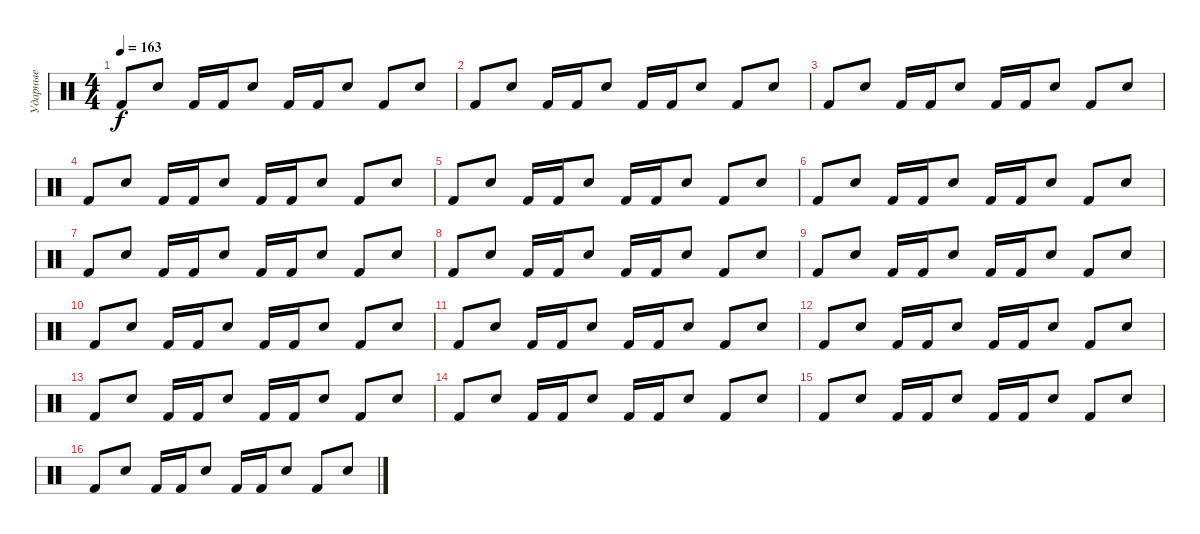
\track ("Ударные" "Ударные") {instrument percussion}
\staff {score}
\articulation defaults
\ts (4 4)
\tempo 163
\clef neutral
\ks c "Kick (hit) 2".8{dy f} "Electric Snare (hit)".8 "Kick (hit) 2".16 "Kick (hit) 2".16 "Electric Snare (hit)".8 "Kick (hit) 2".16 "Kick (hit) 2".16 "Electric Snare (hit)".8 "Kick (hit) 2".8 "Electric Snare (hit)".8
|
"Kick (hit) 2".8 "Electric Snare (hit)".8 "Kick (hit) 2".16 "Kick (hit) 2".16 "Electric Snare (hit)".8 "Kick (hit) 2".16 "Kick (hit) 2".16 "Electric Snare (hit)".8 "Kick (hit) 2".8 "Electric Snare (hit)".8 |
"Kick (hit) 2".8 "Electric Snare (hit)".8 "Kick (hit) 2".16 "Kick (hit) 2".16 "Electric Snare (hit)".8 "Kick (hit) 2".16 "Kick (hit) 2".16 "Electric Snare (hit)".8 "Kick (hit) 2".8 "Electric Snare (hit)".8 |
"Kick (hit) 2".8 "Electric Snare (hit)".8 "Kick (hit) 2".16 "Kick (hit) 2".16 "Electric Snare (hit)".8 "Kick (hit) 2".16 "Kick (hit) 2".16 "Electric Snare (hit)".8 "Kick (hit) 2".8 "Electric Snare (hit)".8 |
"Kick (hit) 2".8 "Electric Snare (hit)".8 "Kick (hit) 2".16 "Kick (hit) 2".16 "Electric Snare (hit)".8 "Kick (hit) 2".16 "Kick (hit) 2".16 "Electric Snare (hit)".8 "Kick (hit) 2".8 "Electric Snare (hit)".8 |
"Kick (hit) 2".8 "Electric Snare (hit)".8 "Kick (hit) 2".16 "Kick (hit) 2".16 "Electric Snare (hit)".8 "Kick (hit) 2".16 "Kick (hit) 2".16 "Electric Snare (hit)".8 "Kick (hit) 2".8 "Electric Snare (hit)".8 |
"Kick (hit) 2".8 "Electric Snare (hit)".8 "Kick (hit) 2".16 "Kick (hit) 2".16 "Electric Snare (hit)".8 "Kick (hit) 2".16 "Kick (hit) 2".16 "Electric Snare (hit)".8 "Kick (hit) 2".8 "Electric Snare (hit)".8 |
"Kick (hit) 2".8 "Electric Snare (hit)".8 "Kick (hit) 2".16 "Kick (hit) 2".16 "Electric Snare (hit)".8 "Kick (hit) 2".16 "Kick (hit) 2".16 "Electric Snare (hit)".8 "Kick (hit) 2".8 "Electric Snare (hit)".8 |
"Kick (hit) 2".8 "Electric Snare (hit)".8 "Kick (hit) 2".16 "Kick (hit) 2".16 "Electric Snare (hit)".8 "Kick (hit) 2".16 "Kick (hit) 2".16 "Electric Snare (hit)".8 "Kick (hit) 2".8 "Electric Snare (hit)".8 |
"Kick (hit) 2".8 "Electric Snare (hit)".8 "Kick (hit) 2".16 "Kick (hit) 2".16 "Electric Snare (hit)".8 "Kick (hit) 2".16 "Kick (hit) 2".16 "Electric Snare (hit)".8 "Kick (hit) 2".8 "Electric Snare (hit)".8 |
"Kick (hit) 2".8 "Electric Snare (hit)".8 "Kick (hit) 2".16 "Kick (hit) 2".16 "Electric Snare (hit)".8 "Kick (hit) 2".16 "Kick (hit) 2".16 "Electric Snare (hit)".8 "Kick (hit) 2".8 "Electric Snare (hit)".8 |
"Kick (hit) 2".8 "Electric Snare (hit)".8 "Kick (hit) 2".16 "Kick (hit) 2".16 "Electric Snare (hit)".8 "Kick (hit) 2".16 "Kick (hit) 2".16 "Electric Snare (hit)".8 "Kick (hit) 2".8 "Electric Snare (hit)".8 |
"Kick (hit) 2".8 "Electric Snare (hit)".8 "Kick (hit) 2".16 "Kick (hit) 2".16 "Electric Snare (hit)".8 "Kick (hit) 2".16 "Kick (hit) 2".16 "Electric Snare (hit)".8 "Kick (hit) 2".8 "Electric Snare (hit)".8 |
"Kick (hit) 2".8 "Electric Snare (hit)".8 "Kick (hit) 2".16 "Kick (hit) 2".16 "Electric Snare (hit)".8 "Kick (hit) 2".16 "Kick (hit) 2".16 "Electric Snare (hit)".8 "Kick (hit) 2".8 "Electric Snare (hit)".8 |
"Kick (hit) 2".8 "Electric Snare (hit)".8 "Kick (hit) 2".16 "Kick (hit) 2".16 "Electric Snare (hit)".8 "Kick (hit) 2".16 "Kick (hit) 2".16 "Electric Snare (hit)".8 "Kick (hit) 2".8 "Electric Snare (hit)".8 |
"Kick (hit) 2".8 "Electric Snare (hit)".8 "Kick (hit) 2".16 "Kick (hit) 2".16 "Electric Snare (hit)".8 "Kick (hit) 2".16 "Kick (hit) 2".16 "Electric Snare (hit)".8 "Kick (hit) 2".8 "Electric Snare (hit)".8
